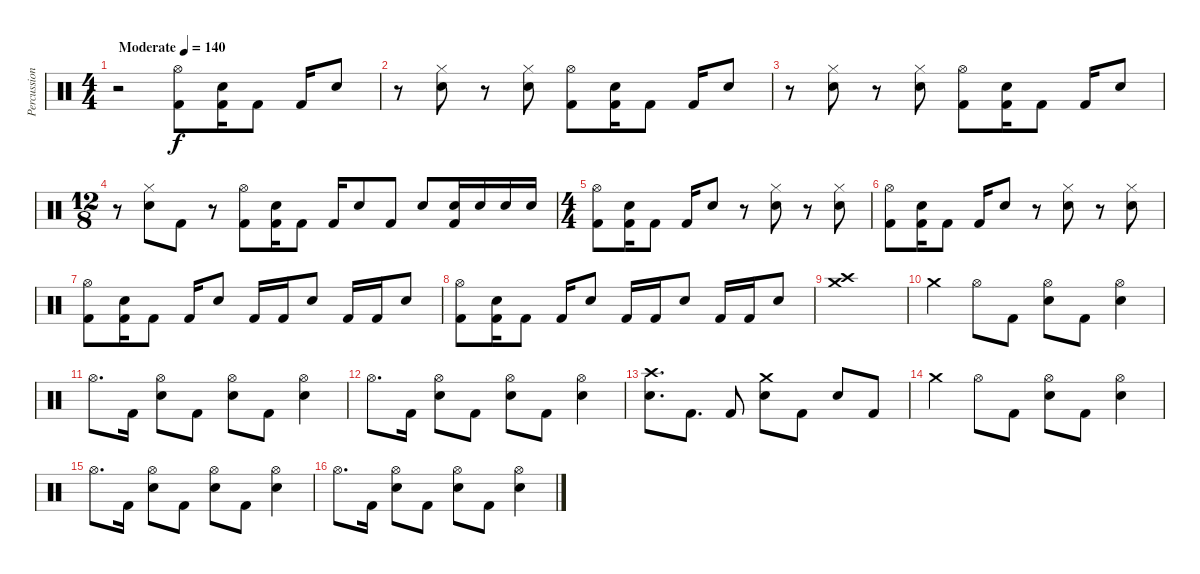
\track ("Percussion" "Percussion") {instrument percussion}
\staff {score}
\articulation defaults
\ts (4 4)
\tempo (140 "Moderate")
\clef neutral
\ks c
r.2{dy f} ("Hi-Hat (open)" "Kick (hit) 2").8 ("Snare (hit) 2" "Kick (hit) 2").16 "Kick (hit) 2".8 "Kick (hit) 2".16 "Snare (hit) 2".8 |
r.8 ("Hi-Hat (closed)" "Snare (hit) 2").8 r.8 ("Hi-Hat (closed)" "Snare (hit) 2").8 ("Hi-Hat (open)" "Kick (hit) 2").8 ("Snare (hit) 2" "Kick (hit) 2").16 "Kick (hit) 2".8 "Kick (hit) 2".16 "Snare (hit) 2".8 |
r.8 ("Hi-Hat (closed)" "Snare (hit) 2").8 r.8 ("Hi-Hat (closed)" "Snare (hit) 2").8 ("Hi-Hat (open)" "Kick (hit) 2").8 ("Snare (hit) 2" "Kick (hit) 2").16 "Kick (hit) 2".8 "Kick (hit) 2".16 "Snare (hit) 2".8 |
\ts (12 8)
r.8 ("Hi-Hat (closed)" "Snare (hit) 2").8 "Kick (hit) 2".8 r.8 ("Hi-Hat (open)" "Kick (hit) 2").8 ("Snare (hit) 2" "Kick (hit) 2").16 "Kick (hit) 2".8 "Kick (hit) 2".16 "Snare (hit) 2".8 "Kick (hit) 2".8 "Snare (hit) 2".8 ("Snare (hit) 2" "Kick (hit) 2").16 "Snare (hit) 2".16 "Snare (hit) 2".16 "Snare (hit) 2".16 |
\ts (4 4)
("Hi-Hat (open)" "Kick (hit) 2").8 ("Snare (hit) 2" "Kick (hit) 2").16 "Kick (hit) 2".8 "Kick (hit) 2".16 "Snare (hit) 2".8 r.8 ("Hi-Hat (closed)" "Snare (hit) 2").8 r.8 ("Hi-Hat (closed)" "Snare (hit) 2").8 |
("Hi-Hat (open)" "Kick (hit) 2").8 ("Snare (hit) 2" "Kick (hit) 2").16 "Kick (hit) 2".8 "Kick (hit) 2".16 "Snare (hit) 2".8 r.8 ("Hi-Hat (closed)" "Snare (hit) 2").8 r.8 ("Hi-Hat (closed)" "Snare (hit) 2").8 |
("Hi-Hat (open)" "Kick (hit) 2").8 ("Snare (hit) 2" "Kick (hit) 2").16 "Kick (hit) 2".8 "Kick (hit) 2".16 "Snare (hit) 2".8 "Kick (hit) 2".16 "Kick (hit) 2".16 "Snare (hit) 2".8 "Kick (hit) 2".16 "Kick (hit) 2".16 "Snare (hit) 2".8 |
("Hi-Hat (open)" "Kick (hit) 2").8 ("Snare (hit) 2" "Kick (hit) 2").16 "Kick (hit) 2".8 "Kick (hit) 2".16 "Snare (hit) 2".8 "Kick (hit) 2".16 "Kick (hit) 2".16 "Snare (hit) 2".8 "Kick (hit) 2".16 "Kick (hit) 2".16 "Snare (hit) 2".8 |
("Crash medium (hit)" "Crash high (hit)").1 |
"Crash medium (hit)".4 "Hi-Hat (open)".8 "Kick (hit) 2".8 ("Hi-Hat (open)" "Snare (hit) 2").8 "Kick (hit) 2".8 ("Hi-Hat (open)" "Snare (hit) 2").4 |
"Hi-Hat (open)".8{d} "Kick (hit) 2".16 ("Hi-Hat (open)" "Snare (hit) 2").8 "Kick (hit) 2".8 ("Hi-Hat (open)" "Snare (hit) 2").8 "Kick (hit) 2".8 ("Hi-Hat (open)" "Snare (hit) 2").4 |
"Hi-Hat (open)".8{d} "Kick (hit) 2".16 ("Hi-Hat (open)" "Snare (hit) 2").8 "Kick (hit) 2".8 ("Hi-Hat (open)" "Snare (hit) 2").8 "Kick (hit) 2".8 ("Hi-Hat (open)" "Snare (hit) 2").4 |
("Crash high (hit)" "Snare (hit) 2").8{d} "Kick (hit) 2".8{d} "Kick (hit) 2".8 ("Crash medium (hit)" "Snare (hit) 2").8 "Kick (hit) 2".8 "Snare (hit) 2".8 "Kick (hit) 2".8 |
"Crash medium (hit)".4 "Hi-Hat (open)".8 "Kick (hit) 2".8 ("Hi-Hat (open)" "Snare (hit) 2").8 "Kick (hit) 2".8 ("Hi-Hat (open)" "Snare (hit) 2").4 |
"Hi-Hat (open)".8{d} "Kick (hit) 2".16 ("Hi-Hat (open)" "Snare (hit) 2").8 "Kick (hit) 2".8 ("Hi-Hat (open)" "Snare (hit) 2").8 "Kick (hit) 2".8 ("Hi-Hat (open)" "Snare (hit) 2").4 |
"Hi-Hat (open)".8{d} "Kick (hit) 2".16 ("Hi-Hat (open)" "Snare (hit) 2").8 "Kick (hit) 2".8 ("Hi-Hat (open)" "Snare (hit) 2").8 "Kick (hit) 2".8 ("Hi-Hat (open)" "Snare (hit) 2").4
